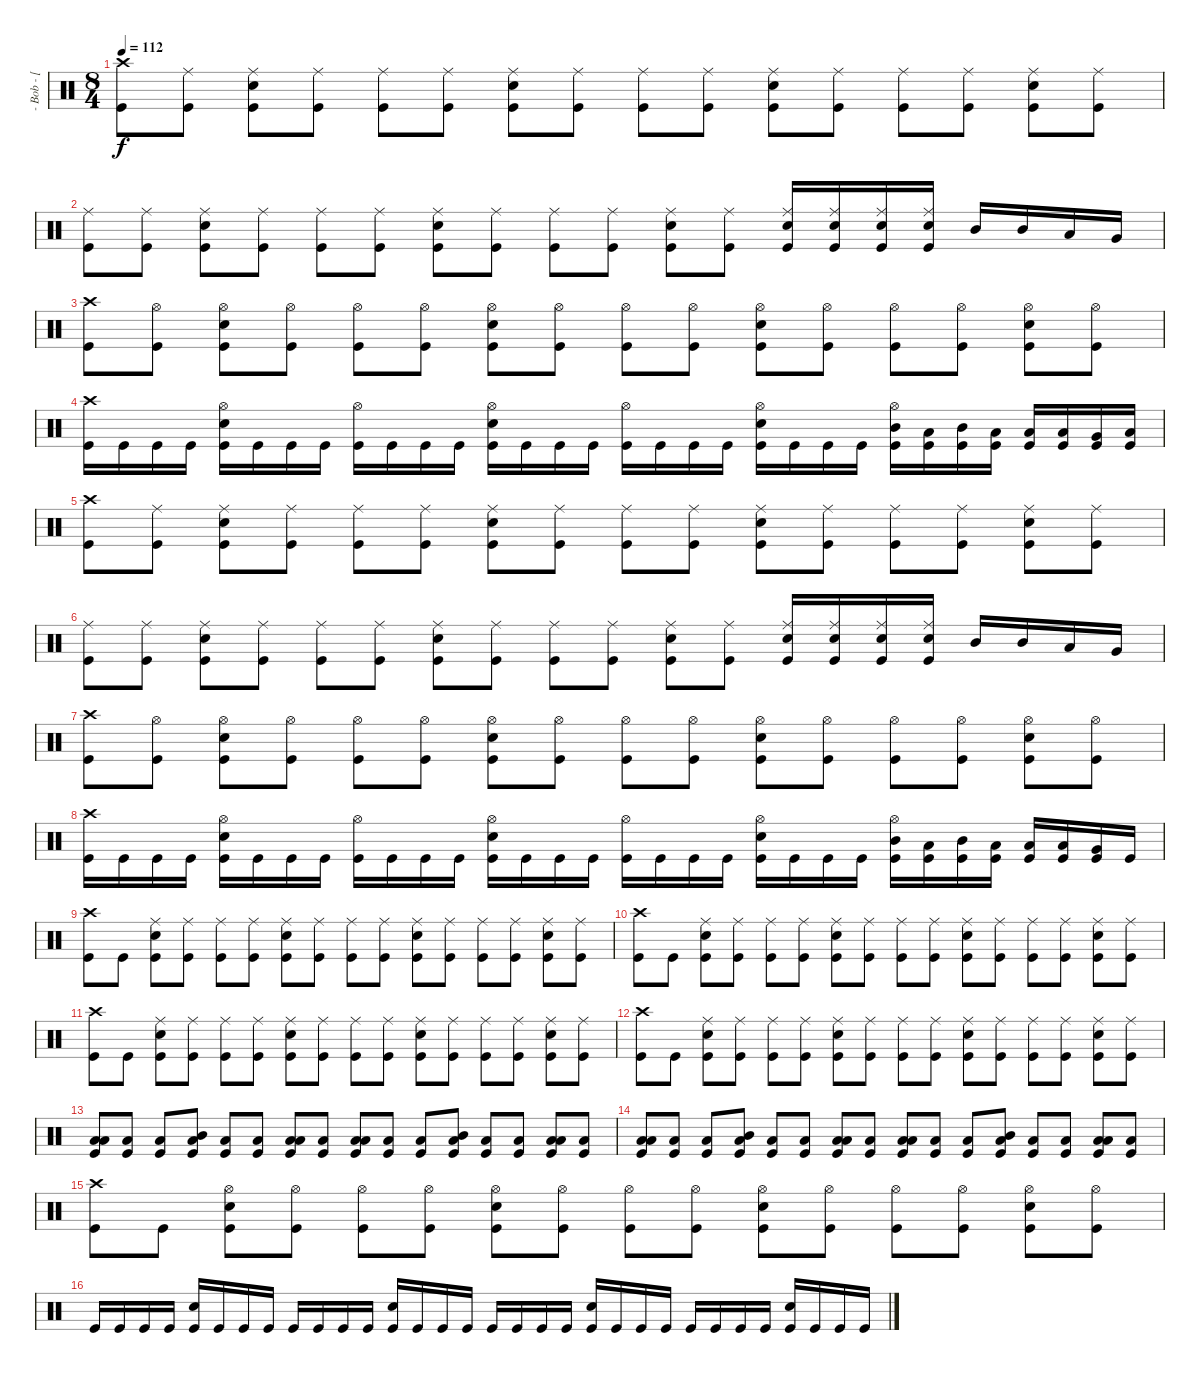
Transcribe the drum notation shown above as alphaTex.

\track ("- Bob - [ Drum ]" "- Bob - [ ") {instrument percussion}
\staff {score}
\articulation defaults
\ts (8 4)
\tempo 112
\clef neutral
\ks c
("Kick (hit)" "Crash high (hit)").8{dy f} ("Kick (hit)" "Ride (middle)").8 ("Kick (hit)" "Snare (hit) 2" "Ride (middle)").8 ("Kick (hit)" "Ride (middle)").8 ("Kick (hit)" "Ride (middle)").8 ("Kick (hit)" "Ride (middle)").8 ("Kick (hit)" "Snare (hit) 2" "Ride (middle)").8 ("Kick (hit)" "Ride (middle)").8 ("Kick (hit)" "Ride (middle)").8 ("Kick (hit)" "Ride (middle)").8 ("Kick (hit)" "Snare (hit) 2" "Ride (middle)").8 ("Kick (hit)" "Ride (middle)").8 ("Kick (hit)" "Ride (middle)").8 ("Kick (hit)" "Ride (middle)").8 ("Kick (hit)" "Snare (hit) 2" "Ride (middle)").8 ("Kick (hit)" "Ride (middle)").8 |
("Kick (hit)" "Ride (middle)").8 ("Kick (hit)" "Ride (middle)").8 ("Kick (hit)" "Snare (hit) 2" "Ride (middle)").8 ("Kick (hit)" "Ride (middle)").8 ("Kick (hit)" "Ride (middle)").8 ("Kick (hit)" "Ride (middle)").8 ("Kick (hit)" "Snare (hit) 2" "Ride (middle)").8 ("Kick (hit)" "Ride (middle)").8 ("Kick (hit)" "Ride (middle)").8 ("Kick (hit)" "Ride (middle)").8 ("Kick (hit)" "Snare (hit) 2" "Ride (middle)").8 ("Kick (hit)" "Ride (middle)").8 ("Kick (hit)" "Snare (hit) 2" "Ride (middle)").16 ("Kick (hit)" "Snare (hit) 2" "Ride (middle)").16 ("Kick (hit)" "Snare (hit) 2" "Ride (middle)").16 ("Kick (hit)" "Snare (hit) 2" "Ride (middle)").16 "Mid Tom (hit)".16 "Mid Tom (hit)".16 "Low Tom (hit)".16 "Very Low Tom (hit)".16 |
("Kick (hit)" "Crash high (hit)").8 ("Kick (hit)" "Hi-Hat (open)").8 ("Kick (hit)" "Snare (hit) 2" "Hi-Hat (open)").8 ("Kick (hit)" "Hi-Hat (open)").8 ("Kick (hit)" "Hi-Hat (open)").8 ("Kick (hit)" "Hi-Hat (open)").8 ("Kick (hit)" "Snare (hit) 2" "Hi-Hat (open)").8 ("Kick (hit)" "Hi-Hat (open)").8 ("Kick (hit)" "Hi-Hat (open)").8 ("Kick (hit)" "Hi-Hat (open)").8 ("Kick (hit)" "Snare (hit) 2" "Hi-Hat (open)").8 ("Kick (hit)" "Hi-Hat (open)").8 ("Kick (hit)" "Hi-Hat (open)").8 ("Kick (hit)" "Hi-Hat (open)").8 ("Kick (hit)" "Snare (hit) 2" "Hi-Hat (open)").8 ("Kick (hit)" "Hi-Hat (open)").8 |
("Kick (hit)" "Crash high (hit)").16 "Kick (hit)".16 "Kick (hit)".16 "Kick (hit)".16 ("Kick (hit)" "Snare (hit) 2" "Hi-Hat (open)").16 "Kick (hit)".16 "Kick (hit)".16 "Kick (hit)".16 ("Kick (hit)" "Hi-Hat (open)").16 "Kick (hit)".16 "Kick (hit)".16 "Kick (hit)".16 ("Kick (hit)" "Snare (hit) 2" "Hi-Hat (open)").16 "Kick (hit)".16 "Kick (hit)".16 "Kick (hit)".16 ("Kick (hit)" "Hi-Hat (open)").16 "Kick (hit)".16 "Kick (hit)".16 "Kick (hit)".16 ("Kick (hit)" "Snare (hit) 2" "Hi-Hat (open)").16 "Kick (hit)".16 "Kick (hit)".16 "Kick (hit)".16 ("Kick (hit)" "Mid Tom (hit)" "Hi-Hat (open)").16 ("Kick (hit)" "Low Tom (hit)").16 ("Kick (hit)" "Mid Tom (hit)").16 ("Kick (hit)" "Low Tom (hit)").16 ("Kick (hit)" "Low Tom (hit)").16 ("Kick (hit)" "Low Tom (hit)").16 ("Kick (hit)" "Very Low Tom (hit)").16 ("Kick (hit)" "Low Floor Tom (hit)").16 |
("Kick (hit)" "Crash high (hit)").8 ("Kick (hit)" "Ride (middle)").8 ("Kick (hit)" "Snare (hit) 2" "Ride (middle)").8 ("Kick (hit)" "Ride (middle)").8 ("Kick (hit)" "Ride (middle)").8 ("Kick (hit)" "Ride (middle)").8 ("Kick (hit)" "Snare (hit) 2" "Ride (middle)").8 ("Kick (hit)" "Ride (middle)").8 ("Kick (hit)" "Ride (middle)").8 ("Kick (hit)" "Ride (middle)").8 ("Kick (hit)" "Snare (hit) 2" "Ride (middle)").8 ("Kick (hit)" "Ride (middle)").8 ("Kick (hit)" "Ride (middle)").8 ("Kick (hit)" "Ride (middle)").8 ("Kick (hit)" "Snare (hit) 2" "Ride (middle)").8 ("Kick (hit)" "Ride (middle)").8 |
("Kick (hit)" "Ride (middle)").8 ("Kick (hit)" "Ride (middle)").8 ("Kick (hit)" "Snare (hit) 2" "Ride (middle)").8 ("Kick (hit)" "Ride (middle)").8 ("Kick (hit)" "Ride (middle)").8 ("Kick (hit)" "Ride (middle)").8 ("Kick (hit)" "Snare (hit) 2" "Ride (middle)").8 ("Kick (hit)" "Ride (middle)").8 ("Kick (hit)" "Ride (middle)").8 ("Kick (hit)" "Ride (middle)").8 ("Kick (hit)" "Snare (hit) 2" "Ride (middle)").8 ("Kick (hit)" "Ride (middle)").8 ("Kick (hit)" "Snare (hit) 2" "Ride (middle)").16 ("Kick (hit)" "Snare (hit) 2" "Ride (middle)").16 ("Kick (hit)" "Snare (hit) 2" "Ride (middle)").16 ("Kick (hit)" "Snare (hit) 2" "Ride (middle)").16 "Mid Tom (hit)".16 "Mid Tom (hit)".16 "Low Tom (hit)".16 "Very Low Tom (hit)".16 |
("Kick (hit)" "Crash high (hit)").8 ("Kick (hit)" "Hi-Hat (open)").8 ("Kick (hit)" "Snare (hit) 2" "Hi-Hat (open)").8 ("Kick (hit)" "Hi-Hat (open)").8 ("Kick (hit)" "Hi-Hat (open)").8 ("Kick (hit)" "Hi-Hat (open)").8 ("Kick (hit)" "Snare (hit) 2" "Hi-Hat (open)").8 ("Kick (hit)" "Hi-Hat (open)").8 ("Kick (hit)" "Hi-Hat (open)").8 ("Kick (hit)" "Hi-Hat (open)").8 ("Kick (hit)" "Snare (hit) 2" "Hi-Hat (open)").8 ("Kick (hit)" "Hi-Hat (open)").8 ("Kick (hit)" "Hi-Hat (open)").8 ("Kick (hit)" "Hi-Hat (open)").8 ("Kick (hit)" "Snare (hit) 2" "Hi-Hat (open)").8 ("Kick (hit)" "Hi-Hat (open)").8 |
("Kick (hit)" "Crash high (hit)").16 "Kick (hit)".16 "Kick (hit)".16 "Kick (hit)".16 ("Kick (hit)" "Snare (hit) 2" "Hi-Hat (open)").16 "Kick (hit)".16 "Kick (hit)".16 "Kick (hit)".16 ("Kick (hit)" "Hi-Hat (open)").16 "Kick (hit)".16 "Kick (hit)".16 "Kick (hit)".16 ("Kick (hit)" "Snare (hit) 2" "Hi-Hat (open)").16 "Kick (hit)".16 "Kick (hit)".16 "Kick (hit)".16 ("Kick (hit)" "Hi-Hat (open)").16 "Kick (hit)".16 "Kick (hit)".16 "Kick (hit)".16 ("Kick (hit)" "Snare (hit) 2" "Hi-Hat (open)").16 "Kick (hit)".16 "Kick (hit)".16 "Kick (hit)".16 ("Kick (hit)" "Mid Tom (hit)" "Hi-Hat (open)").16 ("Kick (hit)" "Low Tom (hit)").16 ("Kick (hit)" "Mid Tom (hit)").16 ("Kick (hit)" "Low Tom (hit)").16 ("Kick (hit)" "Low Tom (hit)").16 ("Kick (hit)" "Low Tom (hit)").16 ("Kick (hit)" "Very Low Tom (hit)").16 "Kick (hit)".16 |
("Kick (hit)" "Crash high (hit)").8 "Kick (hit)".8 ("Kick (hit)" "Snare (hit) 2" "Ride (middle)").8 ("Kick (hit)" "Ride (middle)").8 ("Kick (hit)" "Ride (middle)").8 ("Kick (hit)" "Ride (middle)").8 ("Kick (hit)" "Snare (hit) 2" "Ride (middle)").8 ("Kick (hit)" "Ride (middle)").8 ("Kick (hit)" "Ride (middle)").8 ("Kick (hit)" "Ride (middle)").8 ("Kick (hit)" "Snare (hit) 2" "Ride (middle)").8 ("Kick (hit)" "Ride (middle)").8 ("Kick (hit)" "Ride (middle)").8 ("Kick (hit)" "Ride (middle)").8 ("Kick (hit)" "Snare (hit) 2" "Ride (middle)").8 ("Kick (hit)" "Ride (middle)").8 |
("Kick (hit)" "Crash high (hit)").8 "Kick (hit)".8 ("Kick (hit)" "Snare (hit) 2" "Ride (middle)").8 ("Kick (hit)" "Ride (middle)").8 ("Kick (hit)" "Ride (middle)").8 ("Kick (hit)" "Ride (middle)").8 ("Kick (hit)" "Snare (hit) 2" "Ride (middle)").8 ("Kick (hit)" "Ride (middle)").8 ("Kick (hit)" "Ride (middle)").8 ("Kick (hit)" "Ride (middle)").8 ("Kick (hit)" "Snare (hit) 2" "Ride (middle)").8 ("Kick (hit)" "Ride (middle)").8 ("Kick (hit)" "Ride (middle)").8 ("Kick (hit)" "Ride (middle)").8 ("Kick (hit)" "Snare (hit) 2" "Ride (middle)").8 ("Kick (hit)" "Ride (middle)").8 |
("Kick (hit)" "Crash high (hit)").8 "Kick (hit)".8 ("Kick (hit)" "Snare (hit) 2" "Ride (middle)").8 ("Kick (hit)" "Ride (middle)").8 ("Kick (hit)" "Ride (middle)").8 ("Kick (hit)" "Ride (middle)").8 ("Kick (hit)" "Snare (hit) 2" "Ride (middle)").8 ("Kick (hit)" "Ride (middle)").8 ("Kick (hit)" "Ride (middle)").8 ("Kick (hit)" "Ride (middle)").8 ("Kick (hit)" "Snare (hit) 2" "Ride (middle)").8 ("Kick (hit)" "Ride (middle)").8 ("Kick (hit)" "Ride (middle)").8 ("Kick (hit)" "Ride (middle)").8 ("Kick (hit)" "Snare (hit) 2" "Ride (middle)").8 ("Kick (hit)" "Ride (middle)").8 |
("Kick (hit)" "Crash high (hit)").8 "Kick (hit)".8 ("Kick (hit)" "Snare (hit) 2" "Ride (middle)").8 ("Kick (hit)" "Ride (middle)").8 ("Kick (hit)" "Ride (middle)").8 ("Kick (hit)" "Ride (middle)").8 ("Kick (hit)" "Snare (hit) 2" "Ride (middle)").8 ("Kick (hit)" "Ride (middle)").8 ("Kick (hit)" "Ride (middle)").8 ("Kick (hit)" "Ride (middle)").8 ("Kick (hit)" "Snare (hit) 2" "Ride (middle)").8 ("Kick (hit)" "Ride (middle)").8 ("Kick (hit)" "Ride (middle)").8 ("Kick (hit)" "Ride (middle)").8 ("Kick (hit)" "Snare (hit) 2" "Ride (middle)").8 ("Kick (hit)" "Ride (middle)").8 |
("Low Floor Tom (hit)" "Low Tom (hit)" "Kick (hit)").8 ("Low Floor Tom (hit)" "Kick (hit)").8 ("Low Floor Tom (hit)" "Kick (hit)").8 ("Low Floor Tom (hit)" "Mid Tom (hit)" "Kick (hit)").8 ("Low Floor Tom (hit)" "Kick (hit)").8 ("Low Floor Tom (hit)" "Kick (hit)").8 ("Low Floor Tom (hit)" "Low Tom (hit)" "Kick (hit)").8 ("Low Floor Tom (hit)" "Kick (hit)").8 ("Low Floor Tom (hit)" "Low Tom (hit)" "Kick (hit)").8 ("Low Floor Tom (hit)" "Kick (hit)").8 ("Low Floor Tom (hit)" "Kick (hit)").8 ("Low Floor Tom (hit)" "Mid Tom (hit)" "Kick (hit)").8 ("Low Floor Tom (hit)" "Kick (hit)").8 ("Low Floor Tom (hit)" "Kick (hit)").8 ("Low Floor Tom (hit)" "Low Tom (hit)" "Kick (hit)").8 ("Low Floor Tom (hit)" "Kick (hit)").8 |
("Low Floor Tom (hit)" "Low Tom (hit)" "Kick (hit)").8 ("Low Floor Tom (hit)" "Kick (hit)").8 ("Low Floor Tom (hit)" "Kick (hit)").8 ("Low Floor Tom (hit)" "Mid Tom (hit)" "Kick (hit)").8 ("Low Floor Tom (hit)" "Kick (hit)").8 ("Low Floor Tom (hit)" "Kick (hit)").8 ("Low Floor Tom (hit)" "Low Tom (hit)" "Kick (hit)").8 ("Low Floor Tom (hit)" "Kick (hit)").8 ("Low Floor Tom (hit)" "Low Tom (hit)" "Kick (hit)").8 ("Low Floor Tom (hit)" "Kick (hit)").8 ("Low Floor Tom (hit)" "Kick (hit)").8 ("Low Floor Tom (hit)" "Mid Tom (hit)" "Kick (hit)").8 ("Low Floor Tom (hit)" "Kick (hit)").8 ("Low Floor Tom (hit)" "Kick (hit)").8 ("Low Floor Tom (hit)" "Low Tom (hit)" "Kick (hit)").8 ("Low Floor Tom (hit)" "Kick (hit)").8 |
("Kick (hit)" "Crash high (hit)").8 "Kick (hit)".8 ("Kick (hit)" "Snare (hit) 2" "Hi-Hat (open)").8 ("Kick (hit)" "Hi-Hat (open)").8 ("Kick (hit)" "Hi-Hat (open)").8 ("Kick (hit)" "Hi-Hat (open)").8 ("Kick (hit)" "Snare (hit) 2" "Hi-Hat (open)").8 ("Kick (hit)" "Hi-Hat (open)").8 ("Kick (hit)" "Hi-Hat (open)").8 ("Kick (hit)" "Hi-Hat (open)").8 ("Kick (hit)" "Snare (hit) 2" "Hi-Hat (open)").8 ("Kick (hit)" "Hi-Hat (open)").8 ("Kick (hit)" "Hi-Hat (open)").8 ("Kick (hit)" "Hi-Hat (open)").8 ("Kick (hit)" "Snare (hit) 2" "Hi-Hat (open)").8 ("Kick (hit)" "Hi-Hat (open)").8 |
"Kick (hit)".16 "Kick (hit)".16 "Kick (hit)".16 "Kick (hit)".16 ("Kick (hit)" "Snare (hit) 2").16 "Kick (hit)".16 "Kick (hit)".16 "Kick (hit)".16 "Kick (hit)".16 "Kick (hit)".16 "Kick (hit)".16 "Kick (hit)".16 ("Kick (hit)" "Snare (hit) 2").16 "Kick (hit)".16 "Kick (hit)".16 "Kick (hit)".16 "Kick (hit)".16 "Kick (hit)".16 "Kick (hit)".16 "Kick (hit)".16 ("Kick (hit)" "Snare (hit) 2").16 "Kick (hit)".16 "Kick (hit)".16 "Kick (hit)".16 "Kick (hit)".16 "Kick (hit)".16 "Kick (hit)".16 "Kick (hit)".16 ("Kick (hit)" "Snare (hit) 2").16 "Kick (hit)".16 "Kick (hit)".16 "Kick (hit)".16
